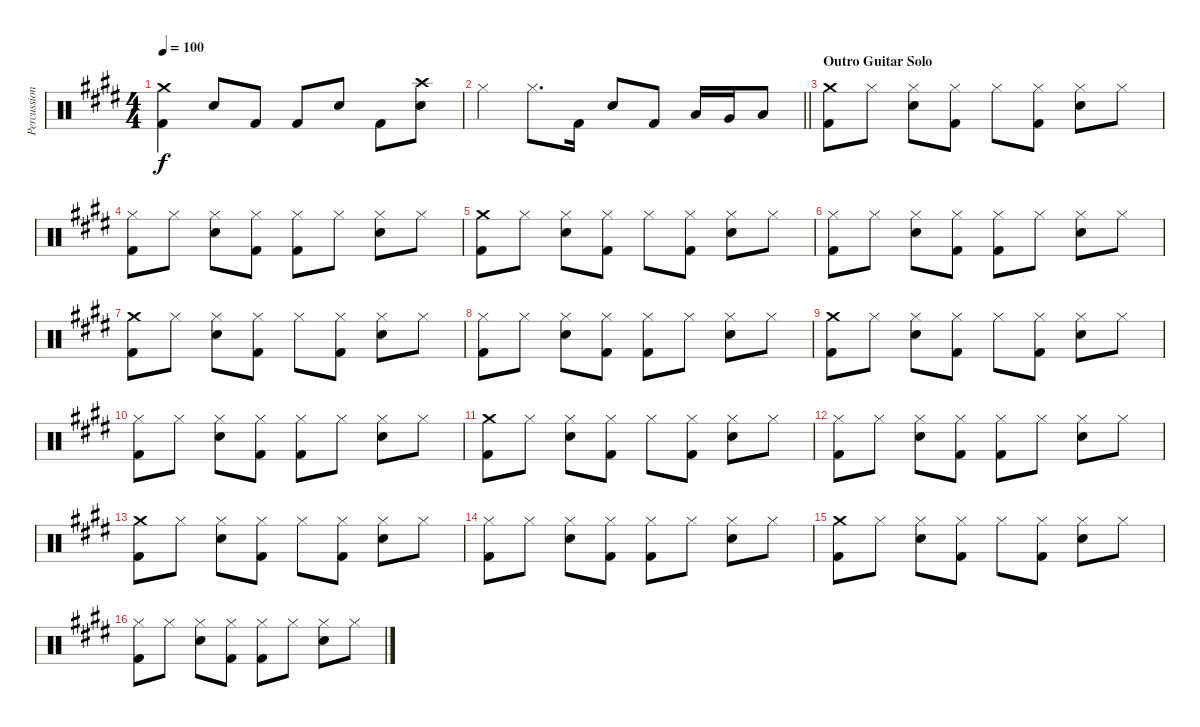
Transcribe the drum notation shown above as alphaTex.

\track ("Percussion" "Percussion") {instrument percussion}
\staff {score}
\articulation defaults
\ts (4 4)
\tempo 100
\clef neutral
\ks c#minor
("Crash medium (hit)" "Kick (hit) 2").4{dy f} "Snare (hit) 2".8 "Kick (hit) 2".8 "Kick (hit) 2".8 "Snare (hit) 2".8 "Kick (hit) 2".8 ("Crash high (hit)" "Snare (hit) 2").8 |
\barLineRight lightlight "Hi-Hat (closed)".4 "Hi-Hat (closed)".8{d} "Kick (hit) 2".16 "Snare (hit) 2".8 "Kick (hit) 2".8 "Low Tom (hit)".16 "Very Low Tom (hit)".16 "Low Floor Tom (hit)".8
|
\section ("" "Outro Guitar Solo")
("Crash medium (hit)" "Kick (hit) 2").8 "Hi-Hat (closed)".8 ("Hi-Hat (closed)" "Snare (hit) 2").8 ("Hi-Hat (closed)" "Kick (hit) 2").8 "Hi-Hat (closed)".8 ("Hi-Hat (closed)" "Kick (hit) 2").8 ("Hi-Hat (closed)" "Snare (hit) 2").8 "Hi-Hat (closed)".8 |
("Hi-Hat (closed)" "Kick (hit) 2").8 "Hi-Hat (closed)".8 ("Hi-Hat (closed)" "Snare (hit) 2").8 ("Hi-Hat (closed)" "Kick (hit) 2").8 ("Hi-Hat (closed)" "Kick (hit) 2").8 "Hi-Hat (closed)".8 ("Hi-Hat (closed)" "Snare (hit) 2").8 "Hi-Hat (closed)".8 |
("Crash medium (hit)" "Kick (hit) 2").8 "Hi-Hat (closed)".8 ("Hi-Hat (closed)" "Snare (hit) 2").8 ("Hi-Hat (closed)" "Kick (hit) 2").8 "Hi-Hat (closed)".8 ("Hi-Hat (closed)" "Kick (hit) 2").8 ("Hi-Hat (closed)" "Snare (hit) 2").8 "Hi-Hat (closed)".8 |
("Hi-Hat (closed)" "Kick (hit) 2").8 "Hi-Hat (closed)".8 ("Hi-Hat (closed)" "Snare (hit) 2").8 ("Hi-Hat (closed)" "Kick (hit) 2").8 ("Hi-Hat (closed)" "Kick (hit) 2").8 "Hi-Hat (closed)".8 ("Hi-Hat (closed)" "Snare (hit) 2").8 "Hi-Hat (closed)".8 |
("Crash medium (hit)" "Kick (hit) 2").8 "Hi-Hat (closed)".8 ("Hi-Hat (closed)" "Snare (hit) 2").8 ("Hi-Hat (closed)" "Kick (hit) 2").8 "Hi-Hat (closed)".8 ("Hi-Hat (closed)" "Kick (hit) 2").8 ("Hi-Hat (closed)" "Snare (hit) 2").8 "Hi-Hat (closed)".8 |
("Hi-Hat (closed)" "Kick (hit) 2").8 "Hi-Hat (closed)".8 ("Hi-Hat (closed)" "Snare (hit) 2").8 ("Hi-Hat (closed)" "Kick (hit) 2").8 ("Hi-Hat (closed)" "Kick (hit) 2").8 "Hi-Hat (closed)".8 ("Hi-Hat (closed)" "Snare (hit) 2").8 "Hi-Hat (closed)".8 |
("Crash medium (hit)" "Kick (hit) 2").8 "Hi-Hat (closed)".8 ("Hi-Hat (closed)" "Snare (hit) 2").8 ("Hi-Hat (closed)" "Kick (hit) 2").8 "Hi-Hat (closed)".8 ("Hi-Hat (closed)" "Kick (hit) 2").8 ("Hi-Hat (closed)" "Snare (hit) 2").8 "Hi-Hat (closed)".8 |
("Hi-Hat (closed)" "Kick (hit) 2").8 "Hi-Hat (closed)".8 ("Hi-Hat (closed)" "Snare (hit) 2").8 ("Hi-Hat (closed)" "Kick (hit) 2").8 ("Hi-Hat (closed)" "Kick (hit) 2").8 "Hi-Hat (closed)".8 ("Hi-Hat (closed)" "Snare (hit) 2").8 "Hi-Hat (closed)".8 |
("Crash medium (hit)" "Kick (hit) 2").8 "Hi-Hat (closed)".8 ("Hi-Hat (closed)" "Snare (hit) 2").8 ("Hi-Hat (closed)" "Kick (hit) 2").8 "Hi-Hat (closed)".8 ("Hi-Hat (closed)" "Kick (hit) 2").8 ("Hi-Hat (closed)" "Snare (hit) 2").8 "Hi-Hat (closed)".8 |
("Hi-Hat (closed)" "Kick (hit) 2").8 "Hi-Hat (closed)".8 ("Hi-Hat (closed)" "Snare (hit) 2").8 ("Hi-Hat (closed)" "Kick (hit) 2").8 ("Hi-Hat (closed)" "Kick (hit) 2").8 "Hi-Hat (closed)".8 ("Hi-Hat (closed)" "Snare (hit) 2").8 "Hi-Hat (closed)".8 |
("Crash medium (hit)" "Kick (hit) 2").8 "Hi-Hat (closed)".8 ("Hi-Hat (closed)" "Snare (hit) 2").8 ("Hi-Hat (closed)" "Kick (hit) 2").8 "Hi-Hat (closed)".8 ("Hi-Hat (closed)" "Kick (hit) 2").8 ("Hi-Hat (closed)" "Snare (hit) 2").8 "Hi-Hat (closed)".8 |
("Hi-Hat (closed)" "Kick (hit) 2").8 "Hi-Hat (closed)".8 ("Hi-Hat (closed)" "Snare (hit) 2").8 ("Hi-Hat (closed)" "Kick (hit) 2").8 ("Hi-Hat (closed)" "Kick (hit) 2").8 "Hi-Hat (closed)".8 ("Hi-Hat (closed)" "Snare (hit) 2").8 "Hi-Hat (closed)".8 |
("Crash medium (hit)" "Kick (hit) 2").8 "Hi-Hat (closed)".8 ("Hi-Hat (closed)" "Snare (hit) 2").8 ("Hi-Hat (closed)" "Kick (hit) 2").8 "Hi-Hat (closed)".8 ("Hi-Hat (closed)" "Kick (hit) 2").8 ("Hi-Hat (closed)" "Snare (hit) 2").8 "Hi-Hat (closed)".8 |
("Hi-Hat (closed)" "Kick (hit) 2").8 "Hi-Hat (closed)".8 ("Hi-Hat (closed)" "Snare (hit) 2").8 ("Hi-Hat (closed)" "Kick (hit) 2").8 ("Hi-Hat (closed)" "Kick (hit) 2").8 "Hi-Hat (closed)".8 ("Hi-Hat (closed)" "Snare (hit) 2").8 "Hi-Hat (closed)".8
